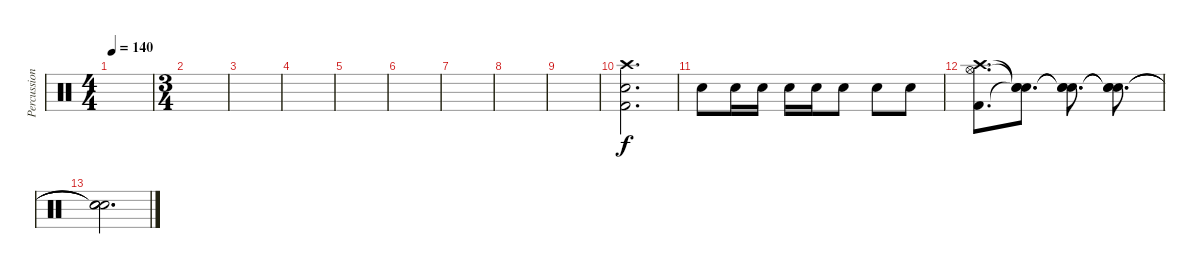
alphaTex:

\track ("Percussion" "Percussion") {instrument percussion}
\staff {score}
\articulation defaults
\ts (4 4)
\tempo 140
\clef neutral
\ks c
|
\ts (3 4)
|
|
|
|
|
|
|
|
("Crash high (hit)" "Electric Snare (hit)" "Kick (hit) 2").2{d dy f} |
"Electric Snare (hit)".8 "Electric Snare (hit)".16 "Electric Snare (hit)".16 "Electric Snare (hit)".16 "Electric Snare (hit)".16 "Electric Snare (hit)".8 "Electric Snare (hit)".8 "Electric Snare (hit)".8 |
("Crash high (hit)" "Hi-Hat (open)" "Kick (hit) 2").8{d} ("Snare (hit)"{t} "Snare (hit)"{t} "Snare (hit)"{t}).8{d} ("Snare (hit)"{t} "Snare (hit)"{t} "Snare (hit)"{t}).8{d} ("Snare (hit)"{t} "Snare (hit)"{t} "Snare (hit)"{t}).8{d} |
("Snare (hit)"{t} "Snare (hit)"{t} "Snare (hit)"{t}).2{d}
